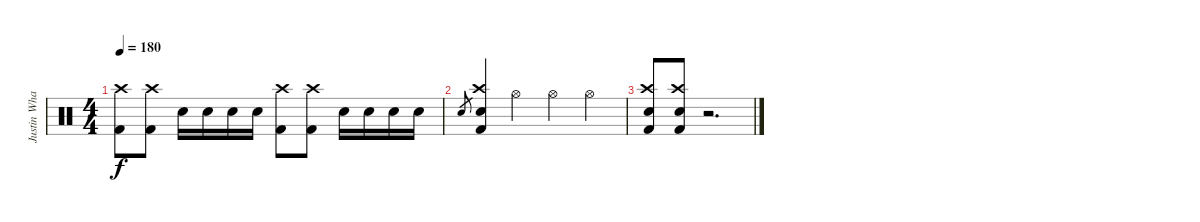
\track ("Justin Wharton" "Justin Wha") {instrument percussion}
\staff {score}
\articulation defaults
\ts (4 4)
\tempo 180
\clef neutral
\ks c
("Kick (hit) 2" "Crash high (hit)").8{dy f} ("Kick (hit) 2" "Crash high (hit)").8 "Electric Snare (hit)".16 "Electric Snare (hit)".16 "Electric Snare (hit)".16 "Electric Snare (hit)".16 ("Kick (hit) 2" "Crash high (hit)").8 ("Kick (hit) 2" "Crash high (hit)").8 "Electric Snare (hit)".16 "Electric Snare (hit)".16 "Electric Snare (hit)".16 "Electric Snare (hit)".16 |
"Electric Snare (hit)".8{gr} ("Electric Snare (hit)" "Kick (hit) 2" "Crash high (hit)").4 "Hi-Hat (open)".4 "Hi-Hat (open)".4 "Hi-Hat (open)".4 |
("Kick (hit) 2" "Electric Snare (hit)" "Crash high (hit)").8 ("Kick (hit) 2" "Electric Snare (hit)" "Crash high (hit)").8 r.2{d}
